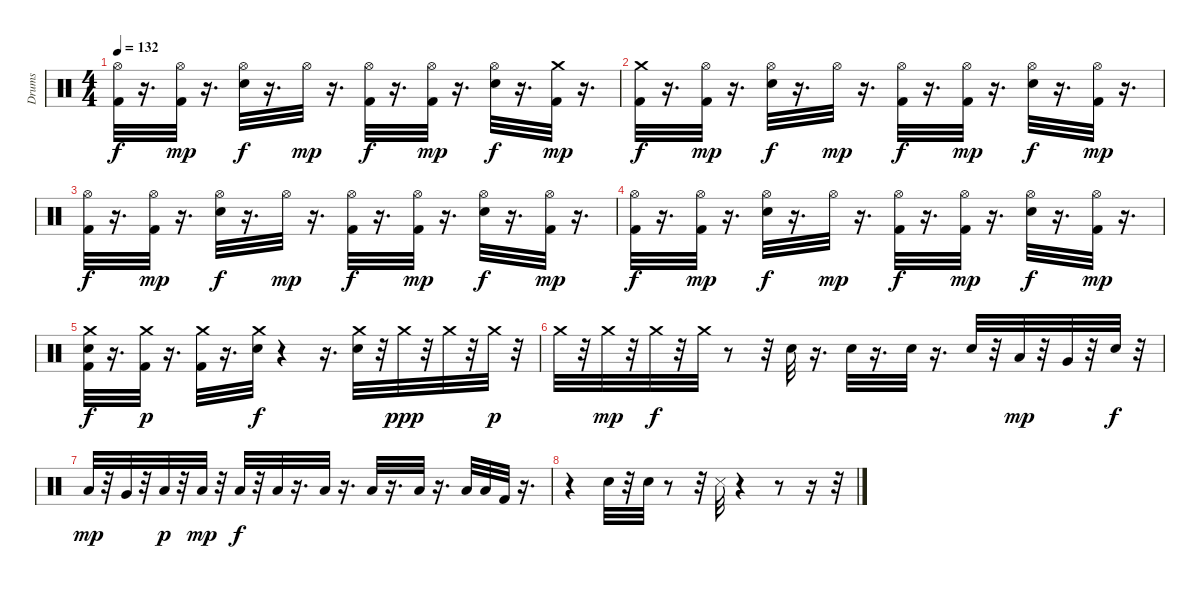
\track ("Drums" "Drums") {instrument percussion}
\staff {score}
\articulation defaults
\ts (4 4)
\tempo 132
\clef neutral
\ks c
("Hi-Hat (open)" "Kick (hit) 2").32{dy f} r.16{d} ("Hi-Hat (open)" "Kick (hit) 2").32{dy mp} r.16{d} ("Hi-Hat (open)" "Electric Snare (hit)").32{dy f} r.16{d} "Hi-Hat (open)".32{dy mp} r.16{d} ("Hi-Hat (open)" "Kick (hit) 2").32{dy f} r.16{d} ("Hi-Hat (open)" "Kick (hit) 2").32{dy mp} r.16{d} ("Electric Snare (hit)" "Hi-Hat (open)").32{dy f} r.16{d} ("Kick (hit) 2" "Crash medium (hit)").32{dy mp} r.16{d} |
("Kick (hit) 2" "Crash medium (hit)").32{dy f} r.16{d} ("Kick (hit) 2" "Hi-Hat (open)").32{dy mp} r.16{d} ("Hi-Hat (open)" "Electric Snare (hit)").32{dy f} r.16{d} "Hi-Hat (open)".32{dy mp} r.16{d} ("Kick (hit) 2" "Hi-Hat (open)").32{dy f} r.16{d} ("Hi-Hat (open)" "Kick (hit) 2").32{dy mp} r.16{d} ("Electric Snare (hit)" "Hi-Hat (open)").32{dy f} r.16{d} ("Kick (hit) 2" "Hi-Hat (open)").32{dy mp} r.16{d} |
("Kick (hit) 2" "Hi-Hat (open)").32{dy f} r.16{d} ("Kick (hit) 2" "Hi-Hat (open)").32{dy mp} r.16{d} ("Hi-Hat (open)" "Electric Snare (hit)").32{dy f} r.16{d} "Hi-Hat (open)".32{dy mp} r.16{d} ("Hi-Hat (open)" "Kick (hit) 2").32{dy f} r.16{d} ("Hi-Hat (open)" "Kick (hit) 2").32{dy mp} r.16{d} ("Hi-Hat (open)" "Electric Snare (hit)").32{dy f} r.16{d} ("Hi-Hat (open)" "Kick (hit) 2").32{dy mp} r.16{d} |
("Hi-Hat (open)" "Kick (hit) 2").32{dy f} r.16{d} ("Kick (hit) 2" "Hi-Hat (open)").32{dy mp} r.16{d} ("Hi-Hat (open)" "Electric Snare (hit)").32{dy f} r.16{d} "Hi-Hat (open)".32{dy mp} r.16{d} ("Hi-Hat (open)" "Kick (hit) 2").32{dy f} r.16{d} ("Kick (hit) 2" "Hi-Hat (open)").32{dy mp} r.16{d} ("Hi-Hat (open)" "Electric Snare (hit)").32{dy f} r.16{d} ("Kick (hit) 2" "Hi-Hat (open)").32{dy mp} r.16{d} |
("Crash medium (hit)" "Kick (hit) 2" "Electric Snare (hit)").32{dy f} r.16{d} ("Crash medium (hit)" "Kick (hit) 2").32{dy p} r.16{d} ("Crash medium (hit)" "Kick (hit) 2").32 r.16{d} ("Crash medium (hit)" "Electric Snare (hit)").32{dy f} r.4 r.16{d} ("Crash medium (hit)" "Electric Snare (hit)").32 r.32 "Crash medium (hit)".32{dy ppp} r.32 "Crash medium (hit)".32 r.32 "Crash medium (hit)".32{dy p} r.32 |
"Crash medium (hit)".32 r.32 "Crash medium (hit)".32{dy mp} r.32 "Crash medium (hit)".32{dy f} r.32 "Crash medium (hit)".32 r.8 r.32 "Electric Snare (hit)".32 r.16{d} "Electric Snare (hit)".32 r.16{d} "Electric Snare (hit)".32 r.16{d} "Electric Snare (hit)".32 r.32 "Low Tom (hit)".32{dy mp} r.32 "Very Low Tom (hit)".32 r.32 "Electric Snare (hit)".32{dy f} r.32 |
"Low Tom (hit)".32{dy mp} r.32 "Very Low Tom (hit)".32 r.32 "Low Floor Tom (hit)".32{dy p} r.32 "Low Floor Tom (hit)".32{dy mp} r.32 "Low Floor Tom (hit)".32{dy f} r.32 "Low Floor Tom (hit)".32 r.16{d} "Low Floor Tom (hit)".32 r.16{d} "Low Floor Tom (hit)".32 r.16{d} "Low Floor Tom (hit)".32 r.16{d} "Low Floor Tom (hit)".32 "Low Floor Tom (hit)".32 "Kick (hit) 2".32 r.16{d} |
r.4 "Electric Snare (hit)".32 r.32 "Electric Snare (hit)".32 r.8 r.32 "Snare (side stick) 3".32 r.4 r.8 r.16 r.32
